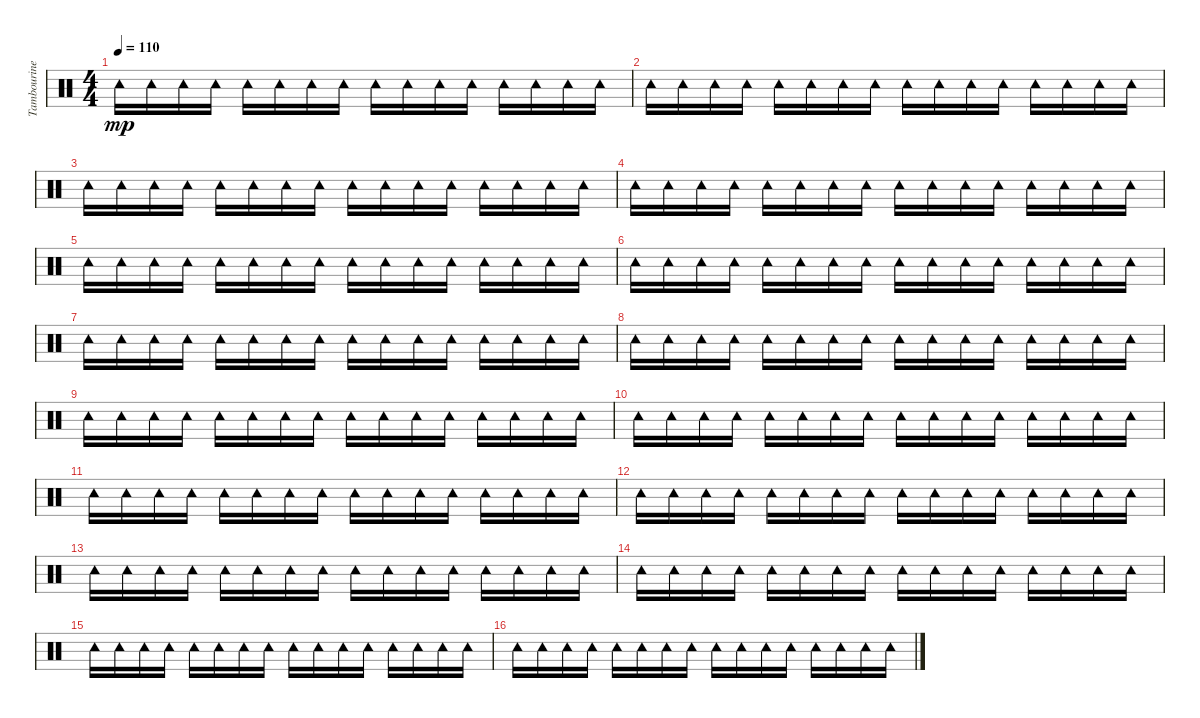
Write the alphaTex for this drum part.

\track ("Tambourine" "Tambourine") {instrument percussion}
\staff {score}
\articulation defaults
\ts (4 4)
\tempo 110
\clef neutral
\ks c "Tambourine (hit)".16{dy mp} "Tambourine (hit)".16 "Tambourine (hit)".16 "Tambourine (hit)".16 "Tambourine (hit)".16 "Tambourine (hit)".16 "Tambourine (hit)".16 "Tambourine (hit)".16 "Tambourine (hit)".16 "Tambourine (hit)".16 "Tambourine (hit)".16 "Tambourine (hit)".16 "Tambourine (hit)".16 "Tambourine (hit)".16 "Tambourine (hit)".16 "Tambourine (hit)".16
|
"Tambourine (hit)".16 "Tambourine (hit)".16 "Tambourine (hit)".16 "Tambourine (hit)".16 "Tambourine (hit)".16 "Tambourine (hit)".16 "Tambourine (hit)".16 "Tambourine (hit)".16 "Tambourine (hit)".16 "Tambourine (hit)".16 "Tambourine (hit)".16 "Tambourine (hit)".16 "Tambourine (hit)".16 "Tambourine (hit)".16 "Tambourine (hit)".16 "Tambourine (hit)".16 |
"Tambourine (hit)".16 "Tambourine (hit)".16 "Tambourine (hit)".16 "Tambourine (hit)".16 "Tambourine (hit)".16 "Tambourine (hit)".16 "Tambourine (hit)".16 "Tambourine (hit)".16 "Tambourine (hit)".16 "Tambourine (hit)".16 "Tambourine (hit)".16 "Tambourine (hit)".16 "Tambourine (hit)".16 "Tambourine (hit)".16 "Tambourine (hit)".16 "Tambourine (hit)".16 |
"Tambourine (hit)".16 "Tambourine (hit)".16 "Tambourine (hit)".16 "Tambourine (hit)".16 "Tambourine (hit)".16 "Tambourine (hit)".16 "Tambourine (hit)".16 "Tambourine (hit)".16 "Tambourine (hit)".16 "Tambourine (hit)".16 "Tambourine (hit)".16 "Tambourine (hit)".16 "Tambourine (hit)".16 "Tambourine (hit)".16 "Tambourine (hit)".16 "Tambourine (hit)".16 |
"Tambourine (hit)".16 "Tambourine (hit)".16 "Tambourine (hit)".16 "Tambourine (hit)".16 "Tambourine (hit)".16 "Tambourine (hit)".16 "Tambourine (hit)".16 "Tambourine (hit)".16 "Tambourine (hit)".16 "Tambourine (hit)".16 "Tambourine (hit)".16 "Tambourine (hit)".16 "Tambourine (hit)".16 "Tambourine (hit)".16 "Tambourine (hit)".16 "Tambourine (hit)".16 |
"Tambourine (hit)".16 "Tambourine (hit)".16 "Tambourine (hit)".16 "Tambourine (hit)".16 "Tambourine (hit)".16 "Tambourine (hit)".16 "Tambourine (hit)".16 "Tambourine (hit)".16 "Tambourine (hit)".16 "Tambourine (hit)".16 "Tambourine (hit)".16 "Tambourine (hit)".16 "Tambourine (hit)".16 "Tambourine (hit)".16 "Tambourine (hit)".16 "Tambourine (hit)".16 |
"Tambourine (hit)".16 "Tambourine (hit)".16 "Tambourine (hit)".16 "Tambourine (hit)".16 "Tambourine (hit)".16 "Tambourine (hit)".16 "Tambourine (hit)".16 "Tambourine (hit)".16 "Tambourine (hit)".16 "Tambourine (hit)".16 "Tambourine (hit)".16 "Tambourine (hit)".16 "Tambourine (hit)".16 "Tambourine (hit)".16 "Tambourine (hit)".16 "Tambourine (hit)".16 |
"Tambourine (hit)".16 "Tambourine (hit)".16 "Tambourine (hit)".16 "Tambourine (hit)".16 "Tambourine (hit)".16 "Tambourine (hit)".16 "Tambourine (hit)".16 "Tambourine (hit)".16 "Tambourine (hit)".16 "Tambourine (hit)".16 "Tambourine (hit)".16 "Tambourine (hit)".16 "Tambourine (hit)".16 "Tambourine (hit)".16 "Tambourine (hit)".16 "Tambourine (hit)".16 |
"Tambourine (hit)".16 "Tambourine (hit)".16 "Tambourine (hit)".16 "Tambourine (hit)".16 "Tambourine (hit)".16 "Tambourine (hit)".16 "Tambourine (hit)".16 "Tambourine (hit)".16 "Tambourine (hit)".16 "Tambourine (hit)".16 "Tambourine (hit)".16 "Tambourine (hit)".16 "Tambourine (hit)".16 "Tambourine (hit)".16 "Tambourine (hit)".16 "Tambourine (hit)".16 |
"Tambourine (hit)".16 "Tambourine (hit)".16 "Tambourine (hit)".16 "Tambourine (hit)".16 "Tambourine (hit)".16 "Tambourine (hit)".16 "Tambourine (hit)".16 "Tambourine (hit)".16 "Tambourine (hit)".16 "Tambourine (hit)".16 "Tambourine (hit)".16 "Tambourine (hit)".16 "Tambourine (hit)".16 "Tambourine (hit)".16 "Tambourine (hit)".16 "Tambourine (hit)".16 |
"Tambourine (hit)".16 "Tambourine (hit)".16 "Tambourine (hit)".16 "Tambourine (hit)".16 "Tambourine (hit)".16 "Tambourine (hit)".16 "Tambourine (hit)".16 "Tambourine (hit)".16 "Tambourine (hit)".16 "Tambourine (hit)".16 "Tambourine (hit)".16 "Tambourine (hit)".16 "Tambourine (hit)".16 "Tambourine (hit)".16 "Tambourine (hit)".16 "Tambourine (hit)".16 |
"Tambourine (hit)".16 "Tambourine (hit)".16 "Tambourine (hit)".16 "Tambourine (hit)".16 "Tambourine (hit)".16 "Tambourine (hit)".16 "Tambourine (hit)".16 "Tambourine (hit)".16 "Tambourine (hit)".16 "Tambourine (hit)".16 "Tambourine (hit)".16 "Tambourine (hit)".16 "Tambourine (hit)".16 "Tambourine (hit)".16 "Tambourine (hit)".16 "Tambourine (hit)".16 |
"Tambourine (hit)".16 "Tambourine (hit)".16 "Tambourine (hit)".16 "Tambourine (hit)".16 "Tambourine (hit)".16 "Tambourine (hit)".16 "Tambourine (hit)".16 "Tambourine (hit)".16 "Tambourine (hit)".16 "Tambourine (hit)".16 "Tambourine (hit)".16 "Tambourine (hit)".16 "Tambourine (hit)".16 "Tambourine (hit)".16 "Tambourine (hit)".16 "Tambourine (hit)".16 |
"Tambourine (hit)".16 "Tambourine (hit)".16 "Tambourine (hit)".16 "Tambourine (hit)".16 "Tambourine (hit)".16 "Tambourine (hit)".16 "Tambourine (hit)".16 "Tambourine (hit)".16 "Tambourine (hit)".16 "Tambourine (hit)".16 "Tambourine (hit)".16 "Tambourine (hit)".16 "Tambourine (hit)".16 "Tambourine (hit)".16 "Tambourine (hit)".16 "Tambourine (hit)".16 |
"Tambourine (hit)".16 "Tambourine (hit)".16 "Tambourine (hit)".16 "Tambourine (hit)".16 "Tambourine (hit)".16 "Tambourine (hit)".16 "Tambourine (hit)".16 "Tambourine (hit)".16 "Tambourine (hit)".16 "Tambourine (hit)".16 "Tambourine (hit)".16 "Tambourine (hit)".16 "Tambourine (hit)".16 "Tambourine (hit)".16 "Tambourine (hit)".16 "Tambourine (hit)".16 |
"Tambourine (hit)".16 "Tambourine (hit)".16 "Tambourine (hit)".16 "Tambourine (hit)".16 "Tambourine (hit)".16 "Tambourine (hit)".16 "Tambourine (hit)".16 "Tambourine (hit)".16 "Tambourine (hit)".16 "Tambourine (hit)".16 "Tambourine (hit)".16 "Tambourine (hit)".16 "Tambourine (hit)".16 "Tambourine (hit)".16 "Tambourine (hit)".16 "Tambourine (hit)".16
